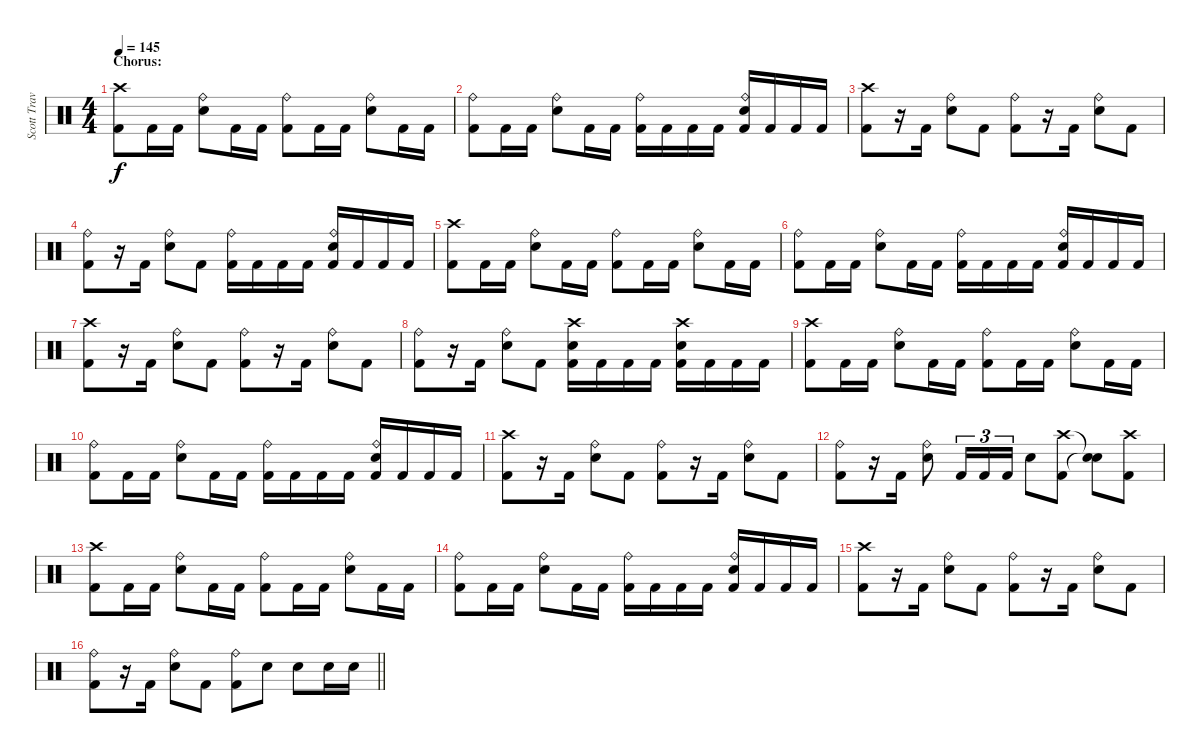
\track ("Scott Travis" "Scott Trav") {instrument percussion}
\staff {score}
\articulation defaults
\ts (4 4)
\section ("" "Chorus:")
\tempo 145
\clef neutral
\ks c
("Crash high (hit)" "Kick (hit) 2").8{dy f} "Kick (hit) 2".16 "Kick (hit) 2".16 ("Ride (bell)" "Snare (hit) 2").8 "Kick (hit) 2".16 "Kick (hit) 2".16 ("Ride (bell)" "Kick (hit) 2").8 "Kick (hit) 2".16 "Kick (hit) 2".16 ("Ride (bell)" "Snare (hit) 2").8 "Kick (hit) 2".16 "Kick (hit) 2".16 |
("Ride (bell)" "Kick (hit) 2").8 "Kick (hit) 2".16 "Kick (hit) 2".16 ("Ride (bell)" "Snare (hit) 2").8 "Kick (hit) 2".16 "Kick (hit) 2".16 ("Ride (bell)" "Kick (hit) 2").16 "Kick (hit) 2".16 "Kick (hit) 2".16 "Kick (hit) 2".16 ("Ride (bell)" "Snare (hit) 2" "Kick (hit) 2").16 "Kick (hit) 2".16 "Kick (hit) 2".16 "Kick (hit) 2".16 |
("Crash high (hit)" "Kick (hit) 2").8 r.16 "Kick (hit) 2".16 ("Ride (bell)" "Snare (hit) 2").8 "Kick (hit) 2".8 ("Ride (bell)" "Kick (hit) 2").8 r.16 "Kick (hit) 2".16 ("Ride (bell)" "Snare (hit) 2").8 "Kick (hit) 2".8 |
("Ride (bell)" "Kick (hit) 2").8 r.16 "Kick (hit) 2".16 ("Ride (bell)" "Snare (hit) 2").8 "Kick (hit) 2".8 ("Ride (bell)" "Kick (hit) 2").16 "Kick (hit) 2".16 "Kick (hit) 2".16 "Kick (hit) 2".16 ("Ride (bell)" "Snare (hit) 2" "Kick (hit) 2").16 "Kick (hit) 2".16 "Kick (hit) 2".16 "Kick (hit) 2".16 |
("Crash high (hit)" "Kick (hit) 2").8 "Kick (hit) 2".16 "Kick (hit) 2".16 ("Ride (bell)" "Snare (hit) 2").8 "Kick (hit) 2".16 "Kick (hit) 2".16 ("Ride (bell)" "Kick (hit) 2").8 "Kick (hit) 2".16 "Kick (hit) 2".16 ("Ride (bell)" "Snare (hit) 2").8 "Kick (hit) 2".16 "Kick (hit) 2".16 |
("Ride (bell)" "Kick (hit) 2").8 "Kick (hit) 2".16 "Kick (hit) 2".16 ("Ride (bell)" "Snare (hit) 2").8 "Kick (hit) 2".16 "Kick (hit) 2".16 ("Ride (bell)" "Kick (hit) 2").16 "Kick (hit) 2".16 "Kick (hit) 2".16 "Kick (hit) 2".16 ("Ride (bell)" "Snare (hit) 2" "Kick (hit) 2").16 "Kick (hit) 2".16 "Kick (hit) 2".16 "Kick (hit) 2".16 |
("Crash high (hit)" "Kick (hit) 2").8 r.16 "Kick (hit) 2".16 ("Ride (bell)" "Snare (hit) 2").8 "Kick (hit) 2".8 ("Ride (bell)" "Kick (hit) 2").8 r.16 "Kick (hit) 2".16 ("Ride (bell)" "Snare (hit) 2").8 "Kick (hit) 2".8 |
("Ride (bell)" "Kick (hit) 2").8 r.16 "Kick (hit) 2".16 ("Ride (bell)" "Snare (hit) 2").8 "Kick (hit) 2".8 ("Crash high (hit)" "Snare (hit) 2" "Kick (hit) 2").16 "Kick (hit) 2".16 "Kick (hit) 2".16 "Kick (hit) 2".16 ("Crash high (hit)" "Snare (hit) 2" "Kick (hit) 2").16 "Kick (hit) 2".16 "Kick (hit) 2".16 "Kick (hit) 2".16 |
("Crash high (hit)" "Kick (hit) 2").8 "Kick (hit) 2".16 "Kick (hit) 2".16 ("Ride (bell)" "Snare (hit) 2").8 "Kick (hit) 2".16 "Kick (hit) 2".16 ("Ride (bell)" "Kick (hit) 2").8 "Kick (hit) 2".16 "Kick (hit) 2".16 ("Ride (bell)" "Snare (hit) 2").8 "Kick (hit) 2".16 "Kick (hit) 2".16 |
("Ride (bell)" "Kick (hit) 2").8 "Kick (hit) 2".16 "Kick (hit) 2".16 ("Ride (bell)" "Snare (hit) 2").8 "Kick (hit) 2".16 "Kick (hit) 2".16 ("Ride (bell)" "Kick (hit) 2").16 "Kick (hit) 2".16 "Kick (hit) 2".16 "Kick (hit) 2".16 ("Ride (bell)" "Snare (hit) 2" "Kick (hit) 2").16 "Kick (hit) 2".16 "Kick (hit) 2".16 "Kick (hit) 2".16 |
("Crash high (hit)" "Kick (hit) 2").8 r.16 "Kick (hit) 2".16 ("Ride (bell)" "Snare (hit) 2").8 "Kick (hit) 2".8 ("Ride (bell)" "Kick (hit) 2").8 r.16 "Kick (hit) 2".16 ("Ride (bell)" "Snare (hit) 2").8 "Kick (hit) 2".8 |
("Ride (bell)" "Kick (hit) 2").8 r.16 "Kick (hit) 2".16 ("Ride (bell)" "Snare (hit) 2").8 "Kick (hit) 2".16{tu (3 2)} "Kick (hit) 2".16{tu (3 2)} "Kick (hit) 2".16{tu (3 2)} "Snare (hit) 2".8 ("Crash high (hit)" "Kick (hit) 2").8 ("Snare (hit)"{t} "Snare (hit)"{t}).8 ("Crash high (hit)" "Kick (hit) 2").8 |
("Crash high (hit)" "Kick (hit) 2").8 "Kick (hit) 2".16 "Kick (hit) 2".16 ("Ride (bell)" "Snare (hit) 2").8 "Kick (hit) 2".16 "Kick (hit) 2".16 ("Ride (bell)" "Kick (hit) 2").8 "Kick (hit) 2".16 "Kick (hit) 2".16 ("Ride (bell)" "Snare (hit) 2").8 "Kick (hit) 2".16 "Kick (hit) 2".16 |
("Ride (bell)" "Kick (hit) 2").8 "Kick (hit) 2".16 "Kick (hit) 2".16 ("Ride (bell)" "Snare (hit) 2").8 "Kick (hit) 2".16 "Kick (hit) 2".16 ("Ride (bell)" "Kick (hit) 2").16 "Kick (hit) 2".16 "Kick (hit) 2".16 "Kick (hit) 2".16 ("Ride (bell)" "Snare (hit) 2" "Kick (hit) 2").16 "Kick (hit) 2".16 "Kick (hit) 2".16 "Kick (hit) 2".16 |
("Crash high (hit)" "Kick (hit) 2").8 r.16 "Kick (hit) 2".16 ("Ride (bell)" "Snare (hit) 2").8 "Kick (hit) 2".8 ("Ride (bell)" "Kick (hit) 2").8 r.16 "Kick (hit) 2".16 ("Ride (bell)" "Snare (hit) 2").8 "Kick (hit) 2".8 |
\barLineRight lightlight
("Ride (bell)" "Kick (hit) 2").8 r.16 "Kick (hit) 2".16 ("Ride (bell)" "Snare (hit) 2").8 "Kick (hit) 2".8 ("Ride (bell)" "Kick (hit) 2").8 "Snare (hit) 2".8 "Snare (hit) 2".8 "Snare (hit) 2".16 "Snare (hit) 2".16
